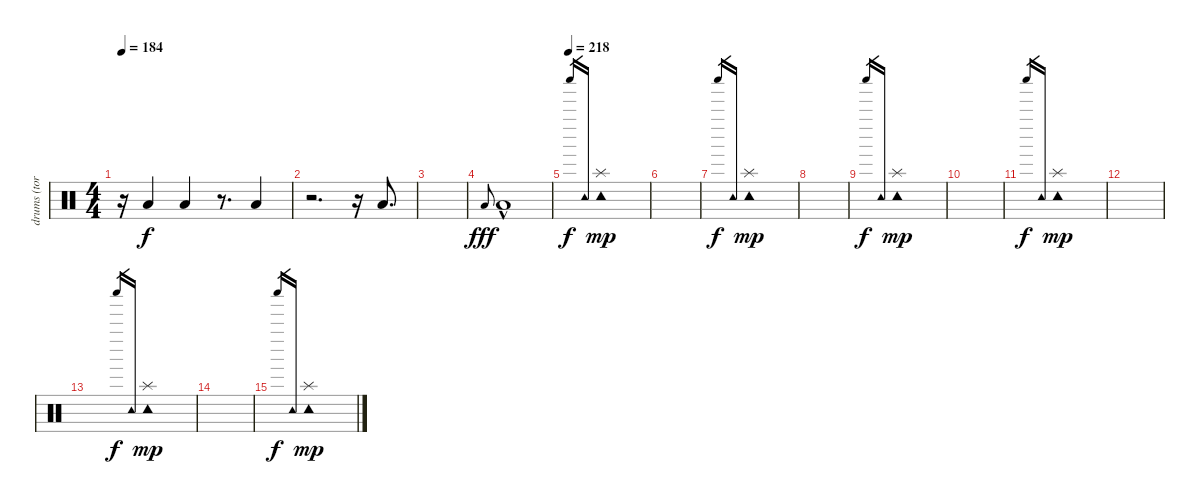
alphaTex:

\track ("drums (tora)" "drums (tor") {instrument percussion}
\staff {score}
\articulation defaults
\ts (4 4)
\tempo 184
\clef neutral
\ks c
r.16{dy f} "Low Floor Tom (hit)".4 "Low Floor Tom (hit)".4 r.8{d} "Low Floor Tom (hit)".4 |
r.2{d} r.16 "Low Floor Tom (hit)".8{d} |
|
"Low Floor Tom (hit)".8{gr onbeat dy fff} "Low Floor Tom (hit)"{hac}.1 |
\tempo (218)
"Shaker (hit)".16{gr dy f} "Tambourine (hit)".16{gr} ("Tambourine (hit)" "Splash (hit)").1{dy mp} |
|
"Shaker (hit)".16{gr dy f} "Tambourine (hit)".16{gr} ("Tambourine (hit)" "Splash (hit)").1{dy mp balance 3} |
|
"Shaker (hit)".16{gr dy f} "Tambourine (hit)".16{gr} ("Tambourine (hit)" "Splash (hit)").1{dy mp balance 6} |
|
"Shaker (hit)".16{gr dy f} "Tambourine (hit)".16{gr} ("Tambourine (hit)" "Splash (hit)").1{dy mp balance 8} |
|
"Shaker (hit)".16{gr dy f} "Tambourine (hit)".16{gr} ("Tambourine (hit)" "Splash (hit)").1{dy mp balance 12} |
|
"Shaker (hit)".16{gr dy f} "Tambourine (hit)".16{gr} ("Tambourine (hit)" "Splash (hit)").1{dy mp balance 14}
